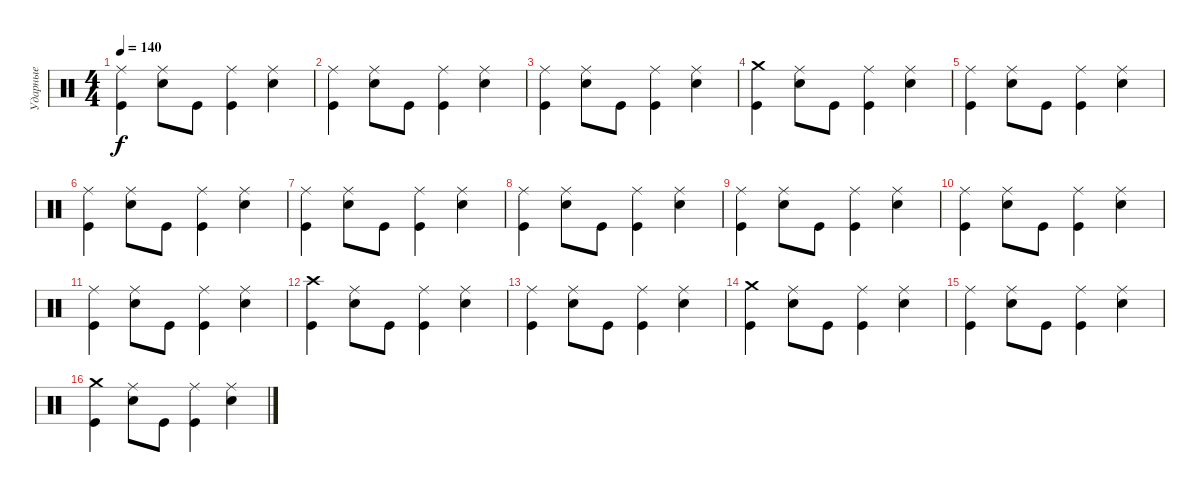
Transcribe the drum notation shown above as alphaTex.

\track ("Ударные" "Ударные") {instrument percussion}
\staff {score}
\articulation defaults
\ts (4 4)
\tempo 140
\clef neutral
\ks c
("Ride (middle)" "Kick (hit)").4{dy f} ("Ride (middle)" "Electric Snare (hit)").8 "Kick (hit)".8 ("Ride (middle)" "Kick (hit)").4 ("Ride (middle)" "Electric Snare (hit)").4 |
("Ride (middle)" "Kick (hit)").4 ("Ride (middle)" "Electric Snare (hit)").8 "Kick (hit)".8 ("Ride (middle)" "Kick (hit)").4 ("Ride (middle)" "Electric Snare (hit)").4 |
("Ride (middle)" "Kick (hit)").4 ("Ride (middle)" "Electric Snare (hit)").8 "Kick (hit)".8 ("Ride (middle)" "Kick (hit)").4 ("Ride (middle)" "Electric Snare (hit)").4 |
("Kick (hit)" "Crash medium (hit)").4 ("Ride (middle)" "Electric Snare (hit)").8 "Kick (hit)".8 ("Ride (middle)" "Kick (hit)").4 ("Ride (middle)" "Electric Snare (hit)").4 |
("Ride (middle)" "Kick (hit)").4 ("Ride (middle)" "Electric Snare (hit)").8 "Kick (hit)".8 ("Ride (middle)" "Kick (hit)").4 ("Ride (middle)" "Electric Snare (hit)").4 |
("Ride (middle)" "Kick (hit)").4 ("Ride (middle)" "Electric Snare (hit)").8 "Kick (hit)".8 ("Ride (middle)" "Kick (hit)").4 ("Ride (middle)" "Electric Snare (hit)").4 |
("Ride (middle)" "Kick (hit)").4 ("Ride (middle)" "Electric Snare (hit)").8 "Kick (hit)".8 ("Ride (middle)" "Kick (hit)").4 ("Ride (middle)" "Electric Snare (hit)").4 |
("Ride (middle)" "Kick (hit)").4 ("Ride (middle)" "Electric Snare (hit)").8 "Kick (hit)".8 ("Ride (middle)" "Kick (hit)").4 ("Ride (middle)" "Electric Snare (hit)").4 |
("Ride (middle)" "Kick (hit)").4 ("Ride (middle)" "Electric Snare (hit)").8 "Kick (hit)".8 ("Ride (middle)" "Kick (hit)").4 ("Ride (middle)" "Electric Snare (hit)").4 |
("Ride (middle)" "Kick (hit)").4 ("Ride (middle)" "Electric Snare (hit)").8 "Kick (hit)".8 ("Ride (middle)" "Kick (hit)").4 ("Ride (middle)" "Electric Snare (hit)").4 |
("Ride (middle)" "Kick (hit)").4 ("Ride (middle)" "Electric Snare (hit)").8 "Kick (hit)".8 ("Ride (middle)" "Kick (hit)").4 ("Ride (middle)" "Electric Snare (hit)").4 |
("Kick (hit)" "Crash high (hit)").4 ("Ride (middle)" "Electric Snare (hit)").8 "Kick (hit)".8 ("Ride (middle)" "Kick (hit)").4 ("Ride (middle)" "Electric Snare (hit)").4 |
("Ride (middle)" "Kick (hit)").4 ("Ride (middle)" "Electric Snare (hit)").8 "Kick (hit)".8 ("Ride (middle)" "Kick (hit)").4 ("Ride (middle)" "Electric Snare (hit)").4 |
("Crash medium (hit)" "Kick (hit)").4 ("Ride (middle)" "Electric Snare (hit)").8 "Kick (hit)".8 ("Ride (middle)" "Kick (hit)").4 ("Ride (middle)" "Electric Snare (hit)").4 |
("Ride (middle)" "Kick (hit)").4 ("Ride (middle)" "Electric Snare (hit)").8 "Kick (hit)".8 ("Ride (middle)" "Kick (hit)").4 ("Ride (middle)" "Electric Snare (hit)").4 |
("Crash medium (hit)" "Kick (hit)").4 ("Ride (middle)" "Electric Snare (hit)").8 "Kick (hit)".8 ("Ride (middle)" "Kick (hit)").4 ("Ride (middle)" "Electric Snare (hit)").4
